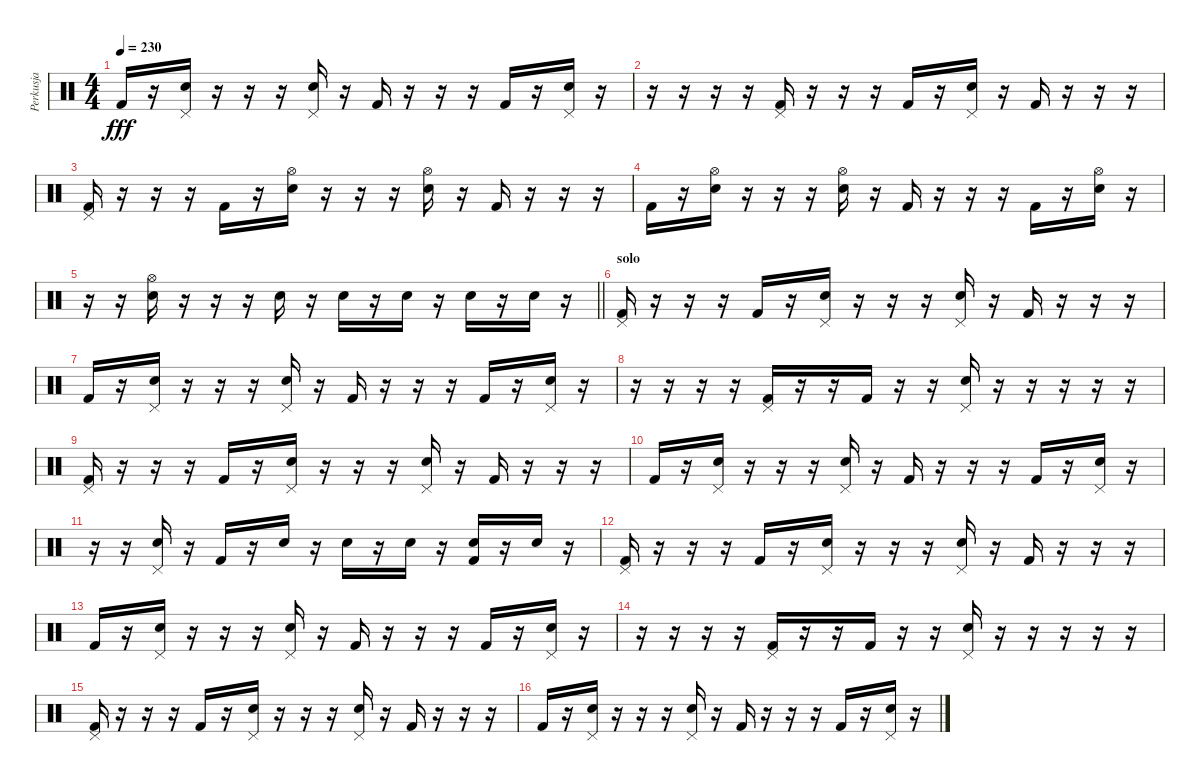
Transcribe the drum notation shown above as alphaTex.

\track ("Perkusja" "Perkusja") {instrument percussion}
\staff {score}
\articulation defaults
\ts (4 4)
\tempo 230
\clef neutral
\ks c "Kick (hit) 2".16{dy fff}
r.16 ("Snare (hit) 2" "Pedal Hi-Hat (hit)").16 r.16 r.16 r.16 ("Snare (hit) 2" "Pedal Hi-Hat (hit)").16 r.16 "Kick (hit) 2".16 r.16 r.16 r.16 "Kick (hit) 2".16 r.16 ("Snare (hit) 2" "Pedal Hi-Hat (hit)").16 r.16 |
r.16 r.16 r.16 r.16 ("Pedal Hi-Hat (hit)" "Kick (hit) 2").16 r.16 r.16 r.16 "Kick (hit) 2".16 r.16 ("Snare (hit) 2" "Pedal Hi-Hat (hit)").16 r.16 "Kick (hit) 2".16 r.16 r.16 r.16 |
("Pedal Hi-Hat (hit)" "Kick (hit) 2").16 r.16 r.16 r.16 "Kick (hit) 2".16 r.16 ("Snare (hit) 2" "Hi-Hat (open)").16 r.16 r.16 r.16 ("Snare (hit) 2" "Hi-Hat (open)").16 r.16 "Kick (hit) 2".16 r.16 r.16 r.16 |
"Kick (hit) 2".16 r.16 ("Snare (hit) 2" "Hi-Hat (open)").16 r.16 r.16 r.16 ("Snare (hit) 2" "Hi-Hat (open)").16 r.16 "Kick (hit) 2".16 r.16 r.16 r.16 "Kick (hit) 2".16 r.16 ("Snare (hit) 2" "Hi-Hat (open)").16 r.16 |
\barLineRight lightlight
r.16 r.16 ("Snare (hit) 2" "Hi-Hat (open)").16 r.16 r.16 r.16 "Snare (hit) 2".16 r.16 "Snare (hit) 2".16 r.16 "Snare (hit) 2".16 r.16 "Snare (hit) 2".16 r.16 "Snare (hit) 2".16 r.16 |
\section ("" "solo")
("Pedal Hi-Hat (hit)" "Kick (hit) 2").16 r.16 r.16 r.16 "Kick (hit) 2".16 r.16 ("Snare (hit) 2" "Pedal Hi-Hat (hit)").16 r.16 r.16 r.16 ("Snare (hit) 2" "Pedal Hi-Hat (hit)").16 r.16 "Kick (hit) 2".16 r.16 r.16 r.16 |
"Kick (hit) 2".16 r.16 ("Snare (hit) 2" "Pedal Hi-Hat (hit)").16 r.16 r.16 r.16 ("Snare (hit) 2" "Pedal Hi-Hat (hit)").16 r.16 "Kick (hit) 2".16 r.16 r.16 r.16 "Kick (hit) 2".16 r.16 ("Snare (hit) 2" "Pedal Hi-Hat (hit)").16 r.16 |
r.16 r.16 r.16 r.16 ("Pedal Hi-Hat (hit)" "Kick (hit) 2").16 r.16 r.16 "Kick (hit) 2".16 r.16 r.16 ("Snare (hit) 2" "Pedal Hi-Hat (hit)").16 r.16 r.16 r.16 r.16 r.16 |
("Pedal Hi-Hat (hit)" "Kick (hit) 2").16 r.16 r.16 r.16 "Kick (hit) 2".16 r.16 ("Snare (hit) 2" "Pedal Hi-Hat (hit)").16 r.16 r.16 r.16 ("Snare (hit) 2" "Pedal Hi-Hat (hit)").16 r.16 "Kick (hit) 2".16 r.16 r.16 r.16 |
"Kick (hit) 2".16 r.16 ("Snare (hit) 2" "Pedal Hi-Hat (hit)").16 r.16 r.16 r.16 ("Snare (hit) 2" "Pedal Hi-Hat (hit)").16 r.16 "Kick (hit) 2".16 r.16 r.16 r.16 "Kick (hit) 2".16 r.16 ("Snare (hit) 2" "Pedal Hi-Hat (hit)").16 r.16 |
r.16 r.16 ("Snare (hit) 2" "Pedal Hi-Hat (hit)").16 r.16 "Kick (hit) 2".16 r.16 "Snare (hit) 2".16 r.16 "Snare (hit) 2".16 r.16 "Snare (hit) 2".16 r.16 ("Snare (hit) 2" "Kick (hit) 2").16 r.16 "Snare (hit) 2".16 r.16 |
("Pedal Hi-Hat (hit)" "Kick (hit) 2").16 r.16 r.16 r.16 "Kick (hit) 2".16 r.16 ("Snare (hit) 2" "Pedal Hi-Hat (hit)").16 r.16 r.16 r.16 ("Snare (hit) 2" "Pedal Hi-Hat (hit)").16 r.16 "Kick (hit) 2".16 r.16 r.16 r.16 |
"Kick (hit) 2".16 r.16 ("Snare (hit) 2" "Pedal Hi-Hat (hit)").16 r.16 r.16 r.16 ("Snare (hit) 2" "Pedal Hi-Hat (hit)").16 r.16 "Kick (hit) 2".16 r.16 r.16 r.16 "Kick (hit) 2".16 r.16 ("Snare (hit) 2" "Pedal Hi-Hat (hit)").16 r.16 |
r.16 r.16 r.16 r.16 ("Pedal Hi-Hat (hit)" "Kick (hit) 2").16 r.16 r.16 "Kick (hit) 2".16 r.16 r.16 ("Snare (hit) 2" "Pedal Hi-Hat (hit)").16 r.16 r.16 r.16 r.16 r.16 |
("Pedal Hi-Hat (hit)" "Kick (hit) 2").16 r.16 r.16 r.16 "Kick (hit) 2".16 r.16 ("Snare (hit) 2" "Pedal Hi-Hat (hit)").16 r.16 r.16 r.16 ("Snare (hit) 2" "Pedal Hi-Hat (hit)").16 r.16 "Kick (hit) 2".16 r.16 r.16 r.16 |
"Kick (hit) 2".16 r.16 ("Snare (hit) 2" "Pedal Hi-Hat (hit)").16 r.16 r.16 r.16 ("Snare (hit) 2" "Pedal Hi-Hat (hit)").16 r.16 "Kick (hit) 2".16 r.16 r.16 r.16 "Kick (hit) 2".16 r.16 ("Snare (hit) 2" "Pedal Hi-Hat (hit)").16 r.16
